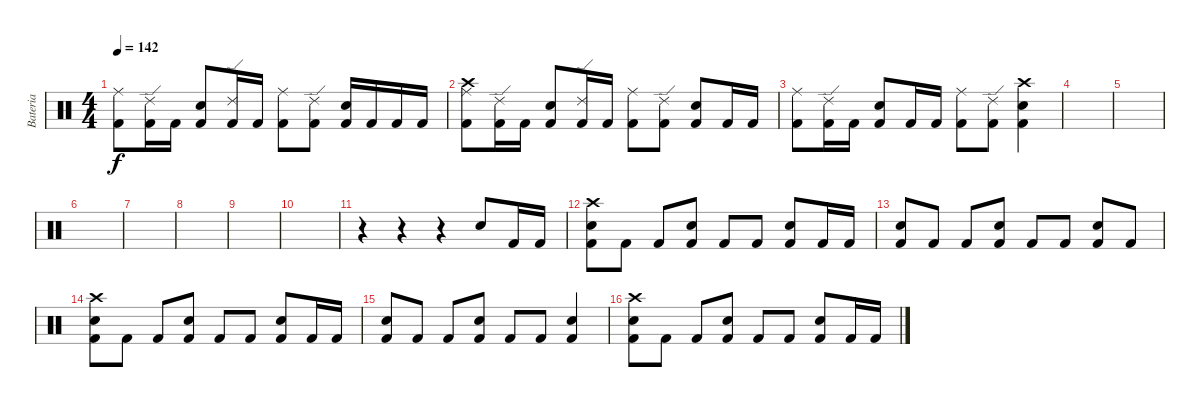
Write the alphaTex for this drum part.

\track ("Bateria" "Bateria") {instrument percussion}
\staff {score}
\articulation defaults
\ts (4 4)
\tempo 142
\clef neutral
\ks c
("Ride (middle)" "Kick (hit) 2").8{dy f} ("Ride (edge) 2" "Kick (hit) 2").16 "Kick (hit) 2".16 ("Electric Snare (hit)" "Kick (hit) 2").8 ("Ride (edge) 2" "Kick (hit) 2").16 "Kick (hit) 2".16 ("Ride (middle)" "Kick (hit) 2").8 ("Ride (edge) 2" "Kick (hit) 2").8 ("Electric Snare (hit)" "Kick (hit) 2").16 "Kick (hit) 2".16 "Kick (hit) 2".16 "Kick (hit) 2".16 |
("Ride (middle)" "Kick (hit) 2" "Crash high (hit)").8 ("Ride (edge) 2" "Kick (hit) 2").16 "Kick (hit) 2".16 ("Electric Snare (hit)" "Kick (hit) 2").8 ("Ride (edge) 2" "Kick (hit) 2").16 "Kick (hit) 2".16 ("Ride (middle)" "Kick (hit) 2").8 ("Ride (edge) 2" "Kick (hit) 2").8 ("Electric Snare (hit)" "Kick (hit) 2").8 "Kick (hit) 2".16 "Kick (hit) 2".16 |
("Ride (middle)" "Kick (hit) 2").8 ("Ride (edge) 2" "Kick (hit) 2").16 "Kick (hit) 2".16 ("Electric Snare (hit)" "Kick (hit) 2").8 "Kick (hit) 2".16 "Kick (hit) 2".16 ("Ride (middle)" "Kick (hit) 2").8 ("Ride (edge) 2" "Kick (hit) 2").8 ("Electric Snare (hit)" "Kick (hit) 2" "Crash high (hit)").4 |
|
|
|
|
|
|
|
r.4 r.4 r.4 "Electric Snare (hit)".8 "Kick (hit) 2".16 "Kick (hit) 2".16 |
("Electric Snare (hit)" "Kick (hit) 2" "Crash high (hit)").8 "Kick (hit) 2".8 "Kick (hit) 2".8 ("Electric Snare (hit)" "Kick (hit) 2").8 "Kick (hit) 2".8 "Kick (hit) 2".8 ("Electric Snare (hit)" "Kick (hit) 2").8 "Kick (hit) 2".16 "Kick (hit) 2".16 |
("Electric Snare (hit)" "Kick (hit) 2").8 "Kick (hit) 2".8 "Kick (hit) 2".8 ("Electric Snare (hit)" "Kick (hit) 2").8 "Kick (hit) 2".8 "Kick (hit) 2".8 ("Electric Snare (hit)" "Kick (hit) 2").8 "Kick (hit) 2".8 |
("Electric Snare (hit)" "Kick (hit) 2" "Crash high (hit)").8 "Kick (hit) 2".8 "Kick (hit) 2".8 ("Electric Snare (hit)" "Kick (hit) 2").8 "Kick (hit) 2".8 "Kick (hit) 2".8 ("Electric Snare (hit)" "Kick (hit) 2").8 "Kick (hit) 2".16 "Kick (hit) 2".16 |
("Electric Snare (hit)" "Kick (hit) 2").8 "Kick (hit) 2".8 "Kick (hit) 2".8 ("Electric Snare (hit)" "Kick (hit) 2").8 "Kick (hit) 2".8 "Kick (hit) 2".8 ("Electric Snare (hit)" "Kick (hit) 2").4 |
("Electric Snare (hit)" "Kick (hit) 2" "Crash high (hit)").8 "Kick (hit) 2".8 "Kick (hit) 2".8 ("Electric Snare (hit)" "Kick (hit) 2").8 "Kick (hit) 2".8 "Kick (hit) 2".8 ("Electric Snare (hit)" "Kick (hit) 2").8 "Kick (hit) 2".16 "Kick (hit) 2".16
